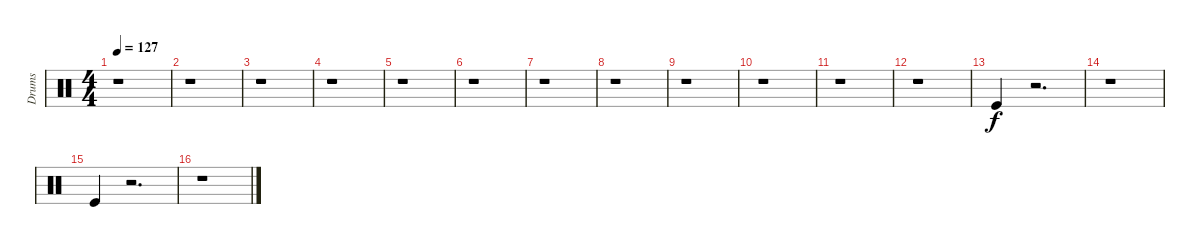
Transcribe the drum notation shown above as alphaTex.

\track ("Drums" "Drums") {instrument percussion}
\staff {score}
\articulation defaults
\ts (4 4)
\tempo 127
\clef neutral
\ks c
r.1{dy f} |
r.1 |
r.1 |
r.1 |
r.1 |
r.1 |
r.1 |
r.1 |
r.1 |
r.1 |
r.1 |
r.1 |
"Kick (hit)".4 r.2{d} |
r.1 |
"Kick (hit)".4 r.2{d} |
r.1
